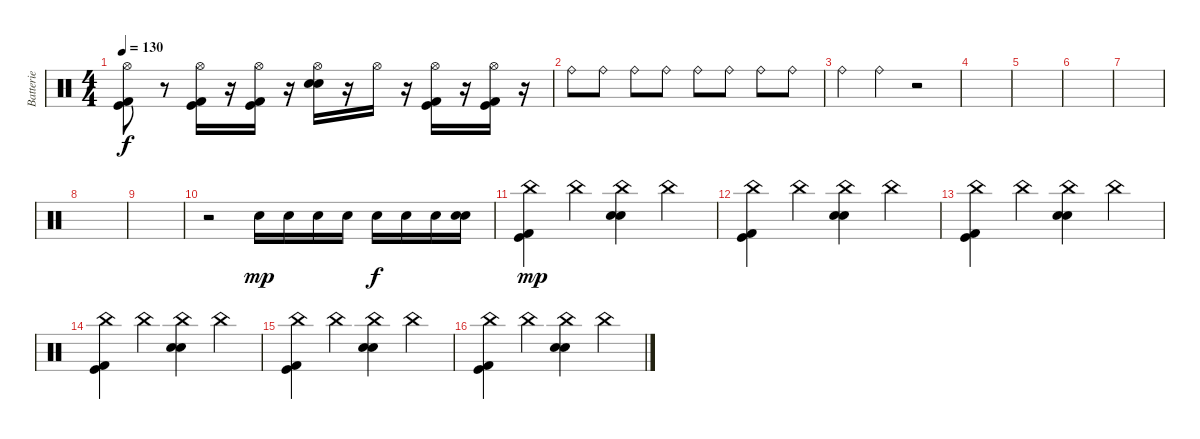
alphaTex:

\track ("Batterie" "Batterie") {instrument percussion}
\staff {score}
\articulation defaults
\ts (4 4)
\tempo 130
\clef neutral
\ks c
("Hi-Hat (open)" "Kick (hit) 2" "Kick (hit)").8{dy f} r.8 ("Hi-Hat (open)" "Kick (hit)" "Kick (hit) 2").16 r.16 ("Hi-Hat (open)" "Kick (hit)" "Kick (hit) 2").16 r.16 ("Hi-Hat (open)" "Electric Snare (hit)" "Electric Snare (hit)").16 r.16 "Hi-Hat (open)".16 r.16 ("Hi-Hat (open)" "Kick (hit)" "Kick (hit) 2").16 r.16 ("Hi-Hat (open)" "Kick (hit) 2" "Kick (hit)").16 r.16 |
"Ride (bell)".8 "Ride (bell)".8 "Ride (bell)".8 "Ride (bell)".8 "Ride (bell)".8 "Ride (bell)".8 "Ride (bell)".8 "Ride (bell)".8 |
"Ride (bell)".4 "Ride (bell)".4 r.2 |
|
|
|
|
|
|
r.2 "Electric Snare (hit)".16{dy mp} "Electric Snare (hit)".16 "Electric Snare (hit)".16 "Electric Snare (hit)".16 "Electric Snare (hit)".16{dy f} "Electric Snare (hit)".16 "Electric Snare (hit)".16 ("Electric Snare (hit)" "Electric Snare (hit)").16 |
("China (hit)" "Kick (hit) 2" "Kick (hit)").4{dy mp} "China (hit)".4 ("China (hit)" "Electric Snare (hit)" "Electric Snare (hit)").4 "China (hit)".4 |
("China (hit)" "Kick (hit) 2" "Kick (hit)").4 "China (hit)".4 ("China (hit)" "Electric Snare (hit)" "Electric Snare (hit)").4 "China (hit)".4 |
("China (hit)" "Kick (hit) 2" "Kick (hit)").4 "China (hit)".4 ("China (hit)" "Electric Snare (hit)" "Electric Snare (hit)").4 "China (hit)".4 |
("China (hit)" "Kick (hit) 2" "Kick (hit)").4 "China (hit)".4 ("China (hit)" "Electric Snare (hit)" "Electric Snare (hit)").4 "China (hit)".4 |
("China (hit)" "Kick (hit) 2" "Kick (hit)").4 "China (hit)".4 ("China (hit)" "Electric Snare (hit)" "Electric Snare (hit)").4 "China (hit)".4 |
("China (hit)" "Kick (hit) 2" "Kick (hit)").4 "China (hit)".4 ("China (hit)" "Electric Snare (hit)" "Electric Snare (hit)").4 "China (hit)".4
